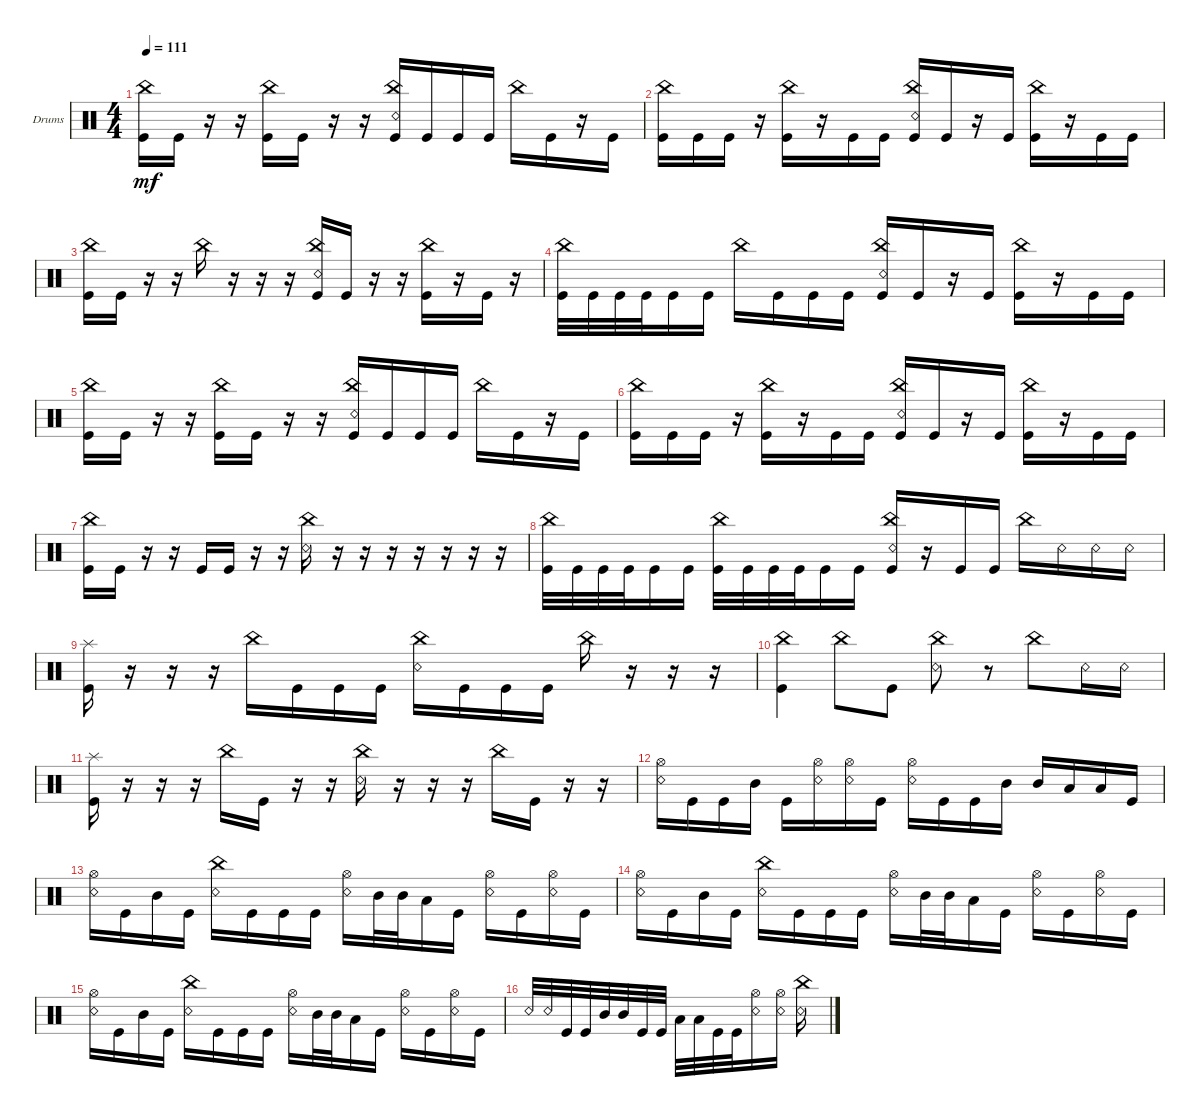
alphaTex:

\defaultSystemsLayout 4
\bracketExtendMode groupsimilarinstruments
\firstSystemTrackNameOrientation horizontal
\otherSystemsTrackNameOrientation horizontal
\track ("Drumkit" "Drums") {instrument percussion}
\staff {score}
\articulation defaults
\ts (4 4)
\tempo 111
\clef neutral
\ks c
("Kick (hit)" "China (hit)").16{dy mf} "Kick (hit)".16 r.16 r.16 ("Kick (hit)" "China (hit)").16 "Kick (hit)".16 r.16 r.16 ("Kick (hit)" "China (hit)" "Snare (rim shot)").16 "Kick (hit)".16 "Kick (hit)".16 "Kick (hit)".16 "China (hit)".16 "Kick (hit)".16 r.16 "Kick (hit)".16 |
("China (hit)" "Kick (hit)").16 "Kick (hit)".16 "Kick (hit)".16 r.16 ("China (hit)" "Kick (hit)").16 r.16 "Kick (hit)".16 "Kick (hit)".16 ("China (hit)" "Kick (hit)" "Snare (rim shot)").16 "Kick (hit)".16 r.16 "Kick (hit)".16 ("China (hit)" "Kick (hit)").16 r.16 "Kick (hit)".16 "Kick (hit)".16 |
("Kick (hit)" "China (hit)").16 "Kick (hit)".16 r.16 r.16 "China (hit)".16 r.16 r.16 r.16 ("Kick (hit)" "China (hit)" "Snare (rim shot)").16 "Kick (hit)".16 r.16 r.16 ("China (hit)" "Kick (hit)").16 r.16 "Kick (hit)".16 r.16 |
("Kick (hit)" "China (hit)").32 "Kick (hit)".32 "Kick (hit)".32 "Kick (hit)".32 "Kick (hit)".16 "Kick (hit)".16 "China (hit)".16 "Kick (hit)".16 "Kick (hit)".16 "Kick (hit)".16 ("Kick (hit)" "China (hit)" "Snare (rim shot)").16 "Kick (hit)".16 r.16 "Kick (hit)".16 ("Kick (hit)" "China (hit)").16 r.16 "Kick (hit)".16 "Kick (hit)".16 |
("Kick (hit)" "China (hit)").16 "Kick (hit)".16 r.16 r.16 ("Kick (hit)" "China (hit)").16 "Kick (hit)".16 r.16 r.16 ("Kick (hit)" "China (hit)" "Snare (rim shot)").16 "Kick (hit)".16 "Kick (hit)".16 "Kick (hit)".16 "China (hit)".16 "Kick (hit)".16 r.16 "Kick (hit)".16 |
("China (hit)" "Kick (hit)").16 "Kick (hit)".16 "Kick (hit)".16 r.16 ("China (hit)" "Kick (hit)").16 r.16 "Kick (hit)".16 "Kick (hit)".16 ("China (hit)" "Kick (hit)" "Snare (rim shot)").16 "Kick (hit)".16 r.16 "Kick (hit)".16 ("China (hit)" "Kick (hit)").16 r.16 "Kick (hit)".16 "Kick (hit)".16 |
("Kick (hit)" "China (hit)").16 "Kick (hit)".16 r.16 r.16 "Kick (hit)".16 "Kick (hit)".16 r.16 r.16 ("China (hit)" "Snare (rim shot)").16 r.16 r.16 r.16 r.16 r.16 r.16 r.16 |
("Kick (hit)" "China (hit)").32 "Kick (hit)".32 "Kick (hit)".32 "Kick (hit)".32 "Kick (hit)".16 "Kick (hit)".16 ("Kick (hit)" "China (hit)").32 "Kick (hit)".32 "Kick (hit)".32 "Kick (hit)".32 "Kick (hit)".16 "Kick (hit)".16 ("Kick (hit)" "China (hit)" "Snare (rim shot)").16 r.16 "Kick (hit)".16 "Kick (hit)".16 "China (hit)".16 "Snare (rim shot)".16 "Snare (rim shot)".16 "Snare (rim shot)".16 |
("Kick (hit)" "Splash (hit)").16 r.16 r.16 r.16 "China (hit)".16 "Kick (hit)".16 "Kick (hit)".16 "Kick (hit)".16 ("Snare (rim shot)" "China (hit)").16 "Kick (hit)".16 "Kick (hit)".16 "Kick (hit)".16 "China (hit)".16 r.16 r.16 r.16 |
("China (hit)" "Kick (hit)").4 "China (hit)".8 "Kick (hit)".8 ("Snare (rim shot)" "China (hit)").8 r.8 "China (hit)".8 "Snare (rim shot)".16 "Snare (rim shot)".16 |
("Kick (hit)" "Splash (hit)").16 r.16 r.16 r.16 "China (hit)".16 "Kick (hit)".16 r.16 r.16 ("Snare (rim shot)" "China (hit)").16 r.16 r.16 r.16 "China (hit)".16 "Kick (hit)".16 r.16 r.16 |
("Snare (rim shot)" "Hi-Hat (open)").16 "Kick (hit)".16 "Kick (hit)".16 "Mid Tom (hit)".16 "Kick (hit)".16 ("Snare (rim shot)" "Hi-Hat (open)").16 ("Snare (rim shot)" "Hi-Hat (open)").16 "Kick (hit)".16 ("Snare (rim shot)" "Hi-Hat (open)").16 "Kick (hit)".16 "Kick (hit)".16 "Mid Tom (hit)".16 "Mid Tom (hit)".16 "Low Tom (hit)".16 "Low Tom (hit)".16 "Kick (hit)".16 |
("Snare (rim shot)" "Hi-Hat (open)").16 "Kick (hit)".16 "Mid Tom (hit)".16 "Kick (hit)".16 ("Snare (rim shot)" "China (hit)").16 "Kick (hit)".16 "Kick (hit)".16 "Kick (hit)".16 ("Snare (rim shot)" "Hi-Hat (open)").16 "Mid Tom (hit)".32 "Mid Tom (hit)".32 "Low Tom (hit)".16 "Kick (hit)".16 ("Snare (rim shot)" "Hi-Hat (open)").16 "Kick (hit)".16 ("Snare (rim shot)" "Hi-Hat (open)").16 "Kick (hit)".16 |
("Snare (rim shot)" "Hi-Hat (open)").16 "Kick (hit)".16 "Mid Tom (hit)".16 "Kick (hit)".16 ("Snare (rim shot)" "China (hit)").16 "Kick (hit)".16 "Kick (hit)".16 "Kick (hit)".16 ("Snare (rim shot)" "Hi-Hat (open)").16 "Mid Tom (hit)".32 "Mid Tom (hit)".32 "Low Tom (hit)".16 "Kick (hit)".16 ("Snare (rim shot)" "Hi-Hat (open)").16 "Kick (hit)".16 ("Snare (rim shot)" "Hi-Hat (open)").16 "Kick (hit)".16 |
("Snare (rim shot)" "Hi-Hat (open)").16 "Kick (hit)".16 "Mid Tom (hit)".16 "Kick (hit)".16 ("Snare (rim shot)" "China (hit)").16 "Kick (hit)".16 "Kick (hit)".16 "Kick (hit)".16 ("Snare (rim shot)" "Hi-Hat (open)").16 "Mid Tom (hit)".32 "Mid Tom (hit)".32 "Low Tom (hit)".16 "Kick (hit)".16 ("Snare (rim shot)" "Hi-Hat (open)").16 "Kick (hit)".16 ("Snare (rim shot)" "Hi-Hat (open)").16 "Kick (hit)".16 |
"Snare (rim shot)".32 "Snare (rim shot)".32 "Kick (hit)".32 "Kick (hit)".32 "Mid Tom (hit)".32 "Mid Tom (hit)".32 "Kick (hit)".32 "Kick (hit)".32 "Low Tom (hit)".32 "Low Tom (hit)".32 "Kick (hit)".32 "Kick (hit)".32 ("Snare (rim shot)" "Hi-Hat (open)").16 ("Snare (rim shot)" "Hi-Hat (open)").16 ("China (hit)" "Snare (rim shot)").16
